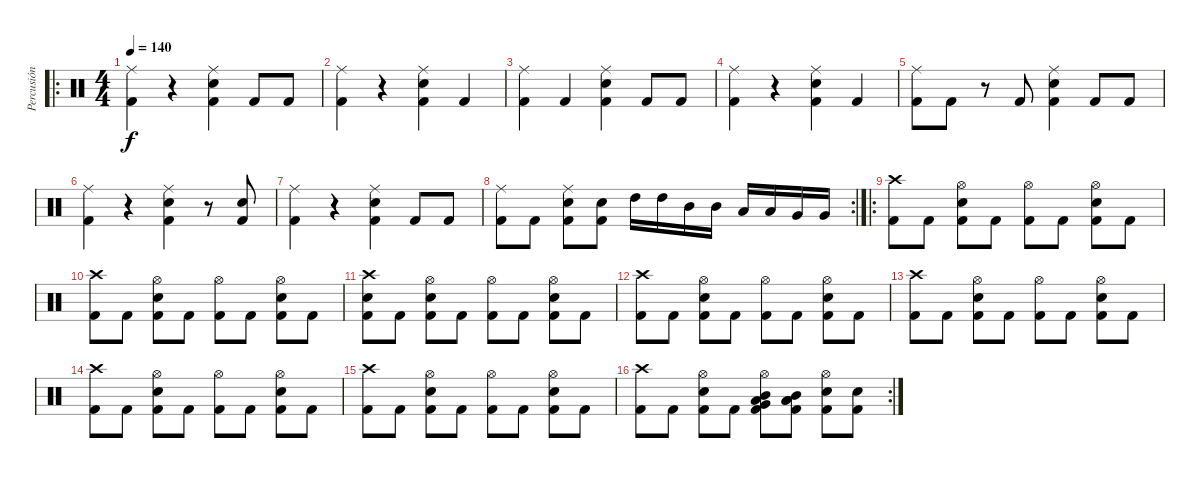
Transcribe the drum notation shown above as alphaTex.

\track ("Percusión" "Percusión") {instrument percussion}
\staff {score}
\articulation defaults
\ro
\ts (4 4)
\tempo 140
\clef neutral
\ks c
("Ride (middle)" "Kick (hit) 2").4{dy f} r.4 ("Ride (middle)" "Snare (hit) 2" "Kick (hit) 2").4 "Kick (hit) 2".8 "Kick (hit) 2".8 |
("Ride (middle)" "Kick (hit) 2").4 r.4 ("Ride (middle)" "Snare (hit) 2" "Kick (hit) 2").4 "Kick (hit) 2".4 |
("Ride (middle)" "Kick (hit) 2").4 "Kick (hit) 2".4 ("Ride (middle)" "Snare (hit) 2" "Kick (hit) 2").4 "Kick (hit) 2".8 "Kick (hit) 2".8 |
("Ride (middle)" "Kick (hit) 2").4 r.4 ("Ride (middle)" "Snare (hit) 2" "Kick (hit) 2").4 "Kick (hit) 2".4 |
("Ride (middle)" "Kick (hit) 2").8 "Kick (hit) 2".8 r.8 "Kick (hit) 2".8 ("Ride (middle)" "Snare (hit) 2" "Kick (hit) 2").4 "Kick (hit) 2".8 "Kick (hit) 2".8 |
("Ride (middle)" "Kick (hit) 2").4 r.4 ("Ride (middle)" "Snare (hit) 2" "Kick (hit) 2").4 r.8 ("Snare (hit) 2" "Kick (hit) 2").8 |
("Ride (middle)" "Kick (hit) 2").4 r.4 ("Ride (middle)" "Snare (hit) 2" "Kick (hit) 2").4 "Kick (hit) 2".8 "Kick (hit) 2".8 |
\rc 2
("Ride (middle)" "Kick (hit) 2").8 "Kick (hit) 2".8 ("Ride (middle)" "Snare (hit) 2" "Kick (hit) 2").8 ("Snare (hit) 2" "Kick (hit) 2").8 "High Tom (hit)".16 "High Tom (hit)".16 "Mid Tom (hit)".16 "Mid Tom (hit)".16 "Low Tom (hit)".16 "Low Tom (hit)".16 "Very Low Tom (hit)".16 "Very Low Tom (hit)".16 |
\ro
("Crash high (hit)" "Kick (hit) 2").8 "Kick (hit) 2".8 ("Hi-Hat (open)" "Snare (hit) 2" "Kick (hit) 2").8 "Kick (hit) 2".8 ("Hi-Hat (open)" "Kick (hit) 2").8 "Kick (hit) 2".8 ("Hi-Hat (open)" "Snare (hit) 2" "Kick (hit) 2").8 "Kick (hit) 2".8 |
("Crash high (hit)" "Kick (hit) 2").8 "Kick (hit) 2".8 ("Hi-Hat (open)" "Snare (hit) 2" "Kick (hit) 2").8 "Kick (hit) 2".8 ("Hi-Hat (open)" "Kick (hit) 2").8 "Kick (hit) 2".8 ("Hi-Hat (open)" "Snare (hit) 2" "Kick (hit) 2").8 "Kick (hit) 2".8 |
("Crash high (hit)" "Snare (hit) 2" "Kick (hit) 2").8 "Kick (hit) 2".8 ("Hi-Hat (open)" "Snare (hit) 2" "Kick (hit) 2").8 "Kick (hit) 2".8 ("Hi-Hat (open)" "Kick (hit) 2").8 "Kick (hit) 2".8 ("Hi-Hat (open)" "Snare (hit) 2" "Kick (hit) 2").8 "Kick (hit) 2".8 |
("Crash high (hit)" "Kick (hit) 2").8 "Kick (hit) 2".8 ("Hi-Hat (open)" "Snare (hit) 2" "Kick (hit) 2").8 "Kick (hit) 2".8 ("Hi-Hat (open)" "Kick (hit) 2").8 "Kick (hit) 2".8 ("Hi-Hat (open)" "Snare (hit) 2" "Kick (hit) 2").8 "Kick (hit) 2".8 |
("Crash high (hit)" "Kick (hit) 2").8 "Kick (hit) 2".8 ("Hi-Hat (open)" "Snare (hit) 2" "Kick (hit) 2").8 "Kick (hit) 2".8 ("Hi-Hat (open)" "Kick (hit) 2").8 "Kick (hit) 2".8 ("Hi-Hat (open)" "Snare (hit) 2" "Kick (hit) 2").8 "Kick (hit) 2".8 |
("Crash high (hit)" "Kick (hit) 2").8 "Kick (hit) 2".8 ("Hi-Hat (open)" "Snare (hit) 2" "Kick (hit) 2").8 "Kick (hit) 2".8 ("Hi-Hat (open)" "Kick (hit) 2").8 "Kick (hit) 2".8 ("Hi-Hat (open)" "Snare (hit) 2" "Kick (hit) 2").8 "Kick (hit) 2".8 |
("Crash high (hit)" "Kick (hit) 2").8 "Kick (hit) 2".8 ("Hi-Hat (open)" "Snare (hit) 2" "Kick (hit) 2").8 "Kick (hit) 2".8 ("Hi-Hat (open)" "Kick (hit) 2").8 "Kick (hit) 2".8 ("Hi-Hat (open)" "Snare (hit) 2" "Kick (hit) 2").8 "Kick (hit) 2".8 |
\rc 2
("Crash high (hit)" "Kick (hit) 2").8 "Kick (hit) 2".8 ("Hi-Hat (open)" "Snare (hit) 2" "Kick (hit) 2").8 "Kick (hit) 2".8 ("Hi-Hat (open)" "Mid Tom (hit)" "Kick (hit) 2" "Low Tom (hit)" "Very Low Tom (hit)").8 ("Mid Tom (hit)" "Kick (hit) 2" "Low Tom (hit)" "Low Floor Tom (hit)").8 ("Hi-Hat (open)" "Snare (hit) 2" "Kick (hit) 2").8 ("Snare (hit) 2" "Kick (hit) 2").8
